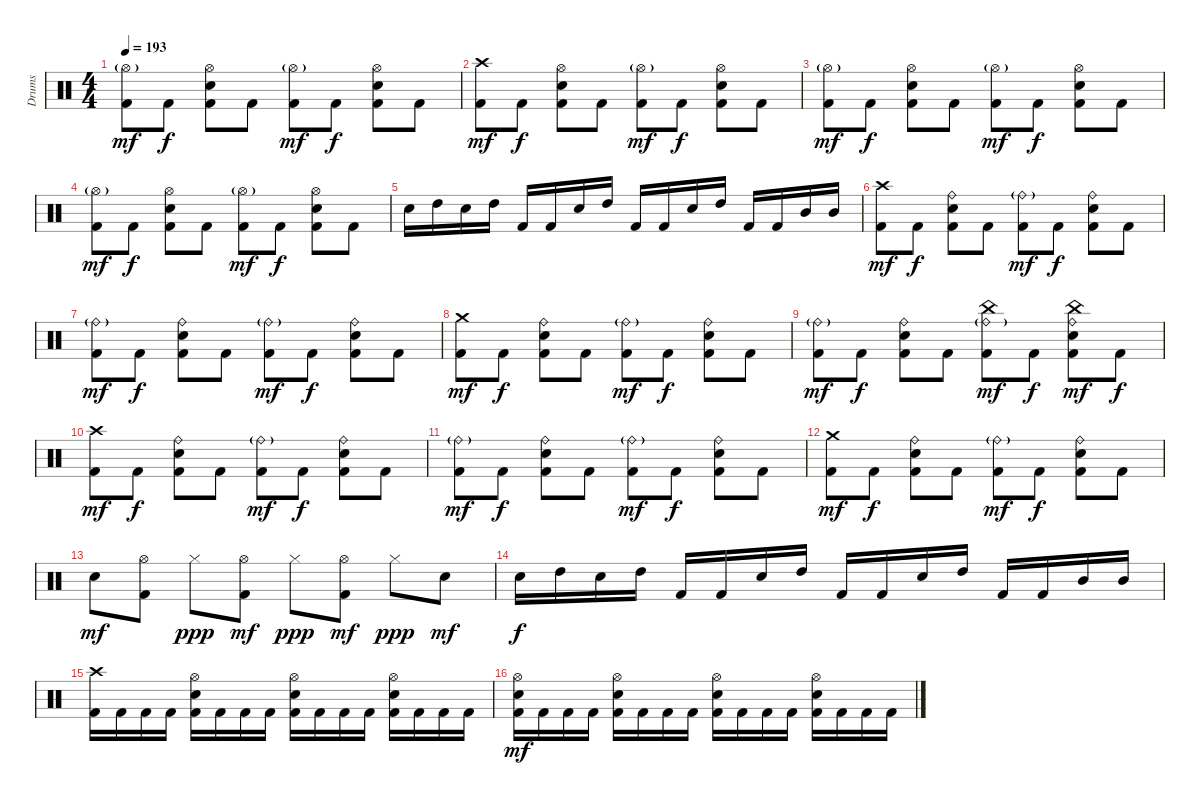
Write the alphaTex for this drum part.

\track ("Drums" "Drums") {instrument percussion}
\staff {score}
\articulation defaults
\ts (4 4)
\tempo 193
\clef neutral
\ks c
("Hi-Hat (open)"{g} "Kick (hit) 2").8{dy mf} "Kick (hit) 2".8{dy f} ("Hi-Hat (open)" "Electric Snare (hit)" "Kick (hit) 2").8 "Kick (hit) 2".8 ("Hi-Hat (open)"{g} "Kick (hit) 2").8{dy mf} "Kick (hit) 2".8{dy f} ("Hi-Hat (open)" "Electric Snare (hit)" "Kick (hit) 2").8 "Kick (hit) 2".8 |
("Crash high (hit)" "Kick (hit) 2").8{dy mf} "Kick (hit) 2".8{dy f} ("Hi-Hat (open)" "Electric Snare (hit)" "Kick (hit) 2").8 "Kick (hit) 2".8 ("Hi-Hat (open)"{g} "Kick (hit) 2").8{dy mf} "Kick (hit) 2".8{dy f} ("Hi-Hat (open)" "Electric Snare (hit)" "Kick (hit) 2").8 "Kick (hit) 2".8 |
("Hi-Hat (open)"{g} "Kick (hit) 2").8{dy mf} "Kick (hit) 2".8{dy f} ("Hi-Hat (open)" "Electric Snare (hit)" "Kick (hit) 2").8 "Kick (hit) 2".8 ("Hi-Hat (open)"{g} "Kick (hit) 2").8{dy mf} "Kick (hit) 2".8{dy f} ("Hi-Hat (open)" "Electric Snare (hit)" "Kick (hit) 2").8 "Kick (hit) 2".8 |
("Hi-Hat (open)"{g} "Kick (hit) 2").8{dy mf} "Kick (hit) 2".8{dy f} ("Hi-Hat (open)" "Electric Snare (hit)" "Kick (hit) 2").8 "Kick (hit) 2".8 ("Hi-Hat (open)"{g} "Kick (hit) 2").8{dy mf} "Kick (hit) 2".8{dy f} ("Hi-Hat (open)" "Electric Snare (hit)" "Kick (hit) 2").8 "Kick (hit) 2".8 |
"Electric Snare (hit)".16 "High Tom (hit)".16 "Electric Snare (hit)".16 "High Tom (hit)".16 "Kick (hit) 2".16 "Kick (hit) 2".16 "Electric Snare (hit)".16 "High Tom (hit)".16 "Kick (hit) 2".16 "Kick (hit) 2".16 "Electric Snare (hit)".16 "High Tom (hit)".16 "Kick (hit) 2".16 "Kick (hit) 2".16 "Mid Tom (hit)".16 "Mid Tom (hit)".16 |
("Crash high (hit)" "Kick (hit) 2").8{dy mf} "Kick (hit) 2".8{dy f} ("Ride (bell)" "Electric Snare (hit)" "Kick (hit) 2").8 "Kick (hit) 2".8 ("Ride (bell)"{g} "Kick (hit) 2").8{dy mf} "Kick (hit) 2".8{dy f} ("Ride (bell)" "Electric Snare (hit)" "Kick (hit) 2").8 "Kick (hit) 2".8 |
("Ride (bell)"{g} "Kick (hit) 2").8{dy mf} "Kick (hit) 2".8{dy f} ("Ride (bell)" "Electric Snare (hit)" "Kick (hit) 2").8 "Kick (hit) 2".8 ("Ride (bell)"{g} "Kick (hit) 2").8{dy mf} "Kick (hit) 2".8{dy f} ("Ride (bell)" "Electric Snare (hit)" "Kick (hit) 2").8 "Kick (hit) 2".8 |
("Crash medium (hit)" "Kick (hit) 2").8{dy mf} "Kick (hit) 2".8{dy f} ("Ride (bell)" "Electric Snare (hit)" "Kick (hit) 2").8 "Kick (hit) 2".8 ("Ride (bell)"{g} "Kick (hit) 2").8{dy mf} "Kick (hit) 2".8{dy f} ("Ride (bell)" "Electric Snare (hit)" "Kick (hit) 2").8 "Kick (hit) 2".8 |
("Ride (bell)"{g} "Kick (hit) 2").8{dy mf} "Kick (hit) 2".8{dy f} ("Ride (bell)" "Electric Snare (hit)" "Kick (hit) 2").8 "Kick (hit) 2".8 ("China (hit)" "Ride (bell)"{g} "Kick (hit) 2").8{dy mf} "Kick (hit) 2".8{dy f} ("China (hit)" "Ride (bell)" "Electric Snare (hit)" "Kick (hit) 2").8{dy mf} "Kick (hit) 2".8{dy f} |
("Crash high (hit)" "Kick (hit) 2").8{dy mf} "Kick (hit) 2".8{dy f} ("Ride (bell)" "Electric Snare (hit)" "Kick (hit) 2").8 "Kick (hit) 2".8 ("Ride (bell)"{g} "Kick (hit) 2").8{dy mf} "Kick (hit) 2".8{dy f} ("Ride (bell)" "Electric Snare (hit)" "Kick (hit) 2").8 "Kick (hit) 2".8 |
("Ride (bell)"{g} "Kick (hit) 2").8{dy mf} "Kick (hit) 2".8{dy f} ("Ride (bell)" "Electric Snare (hit)" "Kick (hit) 2").8 "Kick (hit) 2".8 ("Ride (bell)"{g} "Kick (hit) 2").8{dy mf} "Kick (hit) 2".8{dy f} ("Ride (bell)" "Electric Snare (hit)" "Kick (hit) 2").8 "Kick (hit) 2".8 |
("Crash medium (hit)" "Kick (hit) 2").8{dy mf} "Kick (hit) 2".8{dy f} ("Ride (bell)" "Electric Snare (hit)" "Kick (hit) 2").8 "Kick (hit) 2".8 ("Ride (bell)"{g} "Kick (hit) 2").8{dy mf} "Kick (hit) 2".8{dy f} ("Ride (bell)" "Electric Snare (hit)" "Kick (hit) 2").8 "Kick (hit) 2".8 |
"Electric Snare (hit)".8{dy mf} ("Hi-Hat (open)" "Kick (hit) 2").8 "Hi-Hat (closed)".8{dy ppp} ("Hi-Hat (open)" "Kick (hit) 2").8{dy mf} "Hi-Hat (closed)".8{dy ppp} ("Hi-Hat (open)" "Kick (hit) 2").8{dy mf} "Hi-Hat (closed)".8{dy ppp} "Electric Snare (hit)".8{dy mf} |
"Electric Snare (hit)".16{dy f} "High Tom (hit)".16 "Electric Snare (hit)".16 "High Tom (hit)".16 "Kick (hit) 2".16 "Kick (hit) 2".16 "Electric Snare (hit)".16 "High Tom (hit)".16 "Kick (hit) 2".16 "Kick (hit) 2".16 "Electric Snare (hit)".16 "High Tom (hit)".16 "Kick (hit) 2".16 "Kick (hit) 2".16 "Mid Tom (hit)".16 "Mid Tom (hit)".16 |
("Crash high (hit)" "Kick (hit) 2").16 "Kick (hit) 2".16 "Kick (hit) 2".16 "Kick (hit) 2".16 ("Hi-Hat (open)" "Electric Snare (hit)" "Kick (hit) 2").16 "Kick (hit) 2".16 "Kick (hit) 2".16 "Kick (hit) 2".16 ("Hi-Hat (open)" "Electric Snare (hit)" "Kick (hit) 2").16 "Kick (hit) 2".16 "Kick (hit) 2".16 "Kick (hit) 2".16 ("Hi-Hat (open)" "Electric Snare (hit)" "Kick (hit) 2").16 "Kick (hit) 2".16 "Kick (hit) 2".16 "Kick (hit) 2".16 |
("Hi-Hat (open)" "Electric Snare (hit)" "Kick (hit) 2").16{dy mf} "Kick (hit) 2".16 "Kick (hit) 2".16 "Kick (hit) 2".16 ("Hi-Hat (open)" "Electric Snare (hit)" "Kick (hit) 2").16 "Kick (hit) 2".16 "Kick (hit) 2".16 "Kick (hit) 2".16 ("Hi-Hat (open)" "Electric Snare (hit)" "Kick (hit) 2").16 "Kick (hit) 2".16 "Kick (hit) 2".16 "Kick (hit) 2".16 ("Hi-Hat (open)" "Electric Snare (hit)" "Kick (hit) 2").16 "Kick (hit) 2".16 "Kick (hit) 2".16 "Kick (hit) 2".16
